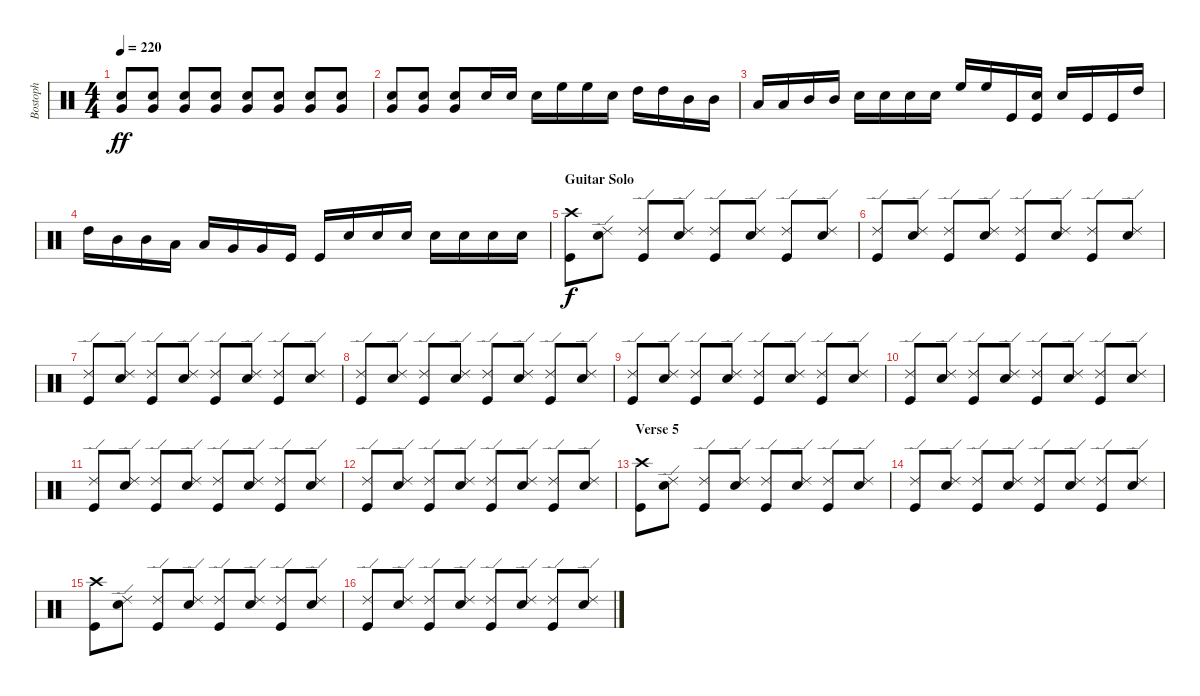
\track ("Bostoph" "Bostoph") {instrument percussion}
\staff {score}
\articulation defaults
\ts (4 4)
\tempo 220
\clef neutral
\ks c
("Very Low Tom (hit)" "Snare (hit) 2").8{dy ff} ("Very Low Tom (hit)" "Snare (hit) 2").8 ("Very Low Tom (hit)" "Snare (hit) 2").8 ("Very Low Tom (hit)" "Snare (hit) 2").8 ("Very Low Tom (hit)" "Snare (hit) 2").8 ("Very Low Tom (hit)" "Snare (hit) 2").8 ("Very Low Tom (hit)" "Snare (hit) 2").8 ("Very Low Tom (hit)" "Snare (hit) 2").8 |
("Very Low Tom (hit)" "Snare (hit) 2").8 ("Very Low Tom (hit)" "Snare (hit) 2").8 ("Very Low Tom (hit)" "Snare (hit) 2").8 "Snare (hit) 2".16 "Snare (hit) 2".16 "Snare (hit) 2".16 "High Floor Tom (hit)".16 "High Floor Tom (hit)".16 "Snare (hit) 2".16 "High Tom (hit)".16 "High Tom (hit)".16 "Mid Tom (hit)".16 "Mid Tom (hit)".16 |
"Low Tom (hit)".16 "Low Tom (hit)".16 "Mid Tom (hit)".16 "Mid Tom (hit)".16 "Snare (hit) 2".16 "Snare (hit) 2".16 "Snare (hit) 2".16 "Snare (hit) 2".16 "High Floor Tom (hit)".16 "High Floor Tom (hit)".16 "Kick (hit)".16 ("Snare (hit) 2" "Kick (hit)").16 "Snare (hit) 2".16 "Kick (hit)".16 "Kick (hit)".16 "High Tom (hit)".16 |
"High Tom (hit)".16 "Mid Tom (hit)".16 "Mid Tom (hit)".16 "Low Tom (hit)".16 "Low Tom (hit)".16 "Very Low Tom (hit)".16 "Very Low Tom (hit)".16 "Kick (hit)".16 "Kick (hit)".16 "Snare (hit) 2".16 "Snare (hit) 2".16 "Snare (hit) 2".16 "Snare (hit) 2".16 "Snare (hit) 2".16 "Snare (hit) 2".16 "Snare (hit) 2".16 |
\section ("" "Guitar Solo")
("Crash high (hit)" "Kick (hit)").8{dy f} ("Ride (edge) 2" "Snare (hit) 2").8 ("Ride (edge) 2" "Kick (hit)").8 ("Ride (edge) 2" "Snare (hit) 2").8 ("Ride (edge) 2" "Kick (hit)").8 ("Ride (edge) 2" "Snare (hit) 2").8 ("Ride (edge) 2" "Kick (hit)").8 ("Ride (edge) 2" "Snare (hit) 2").8 |
("Ride (edge) 2" "Kick (hit)").8 ("Ride (edge) 2" "Snare (hit) 2").8 ("Ride (edge) 2" "Kick (hit)").8 ("Ride (edge) 2" "Snare (hit) 2").8 ("Ride (edge) 2" "Kick (hit)").8 ("Ride (edge) 2" "Snare (hit) 2").8 ("Ride (edge) 2" "Kick (hit)").8 ("Ride (edge) 2" "Snare (hit) 2").8 |
("Ride (edge) 2" "Kick (hit)").8 ("Ride (edge) 2" "Snare (hit) 2").8 ("Ride (edge) 2" "Kick (hit)").8 ("Ride (edge) 2" "Snare (hit) 2").8 ("Ride (edge) 2" "Kick (hit)").8 ("Ride (edge) 2" "Snare (hit) 2").8 ("Ride (edge) 2" "Kick (hit)").8 ("Ride (edge) 2" "Snare (hit) 2").8 |
("Ride (edge) 2" "Kick (hit)").8 ("Ride (edge) 2" "Snare (hit) 2").8 ("Ride (edge) 2" "Kick (hit)").8 ("Ride (edge) 2" "Snare (hit) 2").8 ("Ride (edge) 2" "Kick (hit)").8 ("Ride (edge) 2" "Snare (hit) 2").8 ("Ride (edge) 2" "Kick (hit)").8 ("Ride (edge) 2" "Snare (hit) 2").8 |
("Ride (edge) 2" "Kick (hit)").8 ("Ride (edge) 2" "Snare (hit) 2").8 ("Ride (edge) 2" "Kick (hit)").8 ("Ride (edge) 2" "Snare (hit) 2").8 ("Ride (edge) 2" "Kick (hit)").8 ("Ride (edge) 2" "Snare (hit) 2").8 ("Ride (edge) 2" "Kick (hit)").8 ("Ride (edge) 2" "Snare (hit) 2").8 |
("Ride (edge) 2" "Kick (hit)").8 ("Ride (edge) 2" "Snare (hit) 2").8 ("Ride (edge) 2" "Kick (hit)").8 ("Ride (edge) 2" "Snare (hit) 2").8 ("Ride (edge) 2" "Kick (hit)").8 ("Ride (edge) 2" "Snare (hit) 2").8 ("Ride (edge) 2" "Kick (hit)").8 ("Ride (edge) 2" "Snare (hit) 2").8 |
("Ride (edge) 2" "Kick (hit)").8 ("Ride (edge) 2" "Snare (hit) 2").8 ("Ride (edge) 2" "Kick (hit)").8 ("Ride (edge) 2" "Snare (hit) 2").8 ("Ride (edge) 2" "Kick (hit)").8 ("Ride (edge) 2" "Snare (hit) 2").8 ("Ride (edge) 2" "Kick (hit)").8 ("Ride (edge) 2" "Snare (hit) 2").8 |
("Ride (edge) 2" "Kick (hit)").8 ("Ride (edge) 2" "Snare (hit) 2").8 ("Ride (edge) 2" "Kick (hit)").8 ("Ride (edge) 2" "Snare (hit) 2").8 ("Ride (edge) 2" "Kick (hit)").8 ("Ride (edge) 2" "Snare (hit) 2").8 ("Ride (edge) 2" "Kick (hit)").8 ("Ride (edge) 2" "Snare (hit) 2").8 |
\section ("" "Verse 5")
("Crash high (hit)" "Kick (hit)").8 ("Ride (edge) 2" "Snare (hit) 2").8 ("Ride (edge) 2" "Kick (hit)").8 ("Ride (edge) 2" "Snare (hit) 2").8 ("Ride (edge) 2" "Kick (hit)").8 ("Ride (edge) 2" "Snare (hit) 2").8 ("Ride (edge) 2" "Kick (hit)").8 ("Ride (edge) 2" "Snare (hit) 2").8 |
("Ride (edge) 2" "Kick (hit)").8 ("Ride (edge) 2" "Snare (hit) 2").8 ("Ride (edge) 2" "Kick (hit)").8 ("Ride (edge) 2" "Snare (hit) 2").8 ("Ride (edge) 2" "Kick (hit)").8 ("Ride (edge) 2" "Snare (hit) 2").8 ("Ride (edge) 2" "Kick (hit)").8 ("Ride (edge) 2" "Snare (hit) 2").8 |
("Crash high (hit)" "Kick (hit)").8 ("Ride (edge) 2" "Snare (hit) 2").8 ("Ride (edge) 2" "Kick (hit)").8 ("Ride (edge) 2" "Snare (hit) 2").8 ("Ride (edge) 2" "Kick (hit)").8 ("Ride (edge) 2" "Snare (hit) 2").8 ("Ride (edge) 2" "Kick (hit)").8 ("Ride (edge) 2" "Snare (hit) 2").8 |
("Ride (edge) 2" "Kick (hit)").8 ("Ride (edge) 2" "Snare (hit) 2").8 ("Ride (edge) 2" "Kick (hit)").8 ("Ride (edge) 2" "Snare (hit) 2").8 ("Ride (edge) 2" "Kick (hit)").8 ("Ride (edge) 2" "Snare (hit) 2").8 ("Ride (edge) 2" "Kick (hit)").8 ("Ride (edge) 2" "Snare (hit) 2").8
